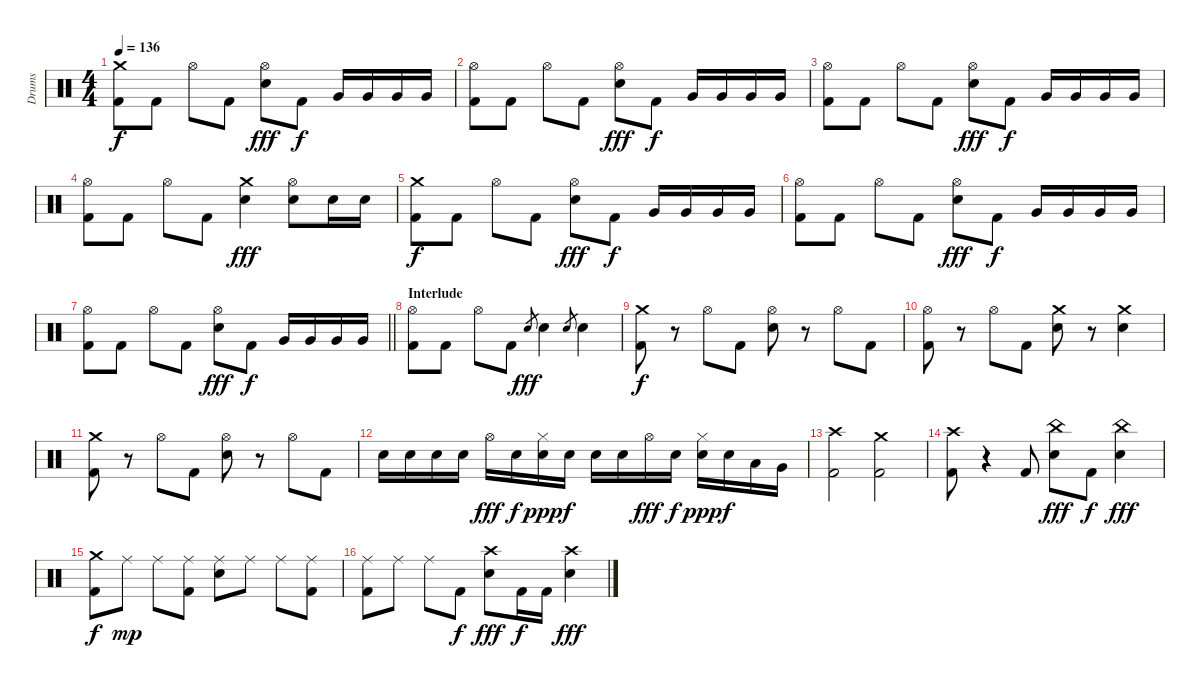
\track ("Drums" "Drums") {instrument percussion}
\staff {score}
\articulation defaults
\ts (4 4)
\tempo 136
\clef neutral
\ks c
("Crash medium (hit)" "Kick (hit) 2").8{dy f} "Kick (hit) 2".8 "Hi-Hat (open)".8 "Kick (hit) 2".8 ("Hi-Hat (open)" "Electric Snare (hit)").8{dy fff} "Kick (hit) 2".8{dy f} "Very Low Tom (hit)".16 "Very Low Tom (hit)".16 "Very Low Tom (hit)".16 "Very Low Tom (hit)".16 |
("Hi-Hat (open)" "Kick (hit) 2").8 "Kick (hit) 2".8 "Hi-Hat (open)".8 "Kick (hit) 2".8 ("Hi-Hat (open)" "Electric Snare (hit)").8{dy fff} "Kick (hit) 2".8{dy f} "Very Low Tom (hit)".16 "Very Low Tom (hit)".16 "Very Low Tom (hit)".16 "Very Low Tom (hit)".16 |
("Hi-Hat (open)" "Kick (hit) 2").8 "Kick (hit) 2".8 "Hi-Hat (open)".8 "Kick (hit) 2".8 ("Hi-Hat (open)" "Electric Snare (hit)").8{dy fff} "Kick (hit) 2".8{dy f} "Very Low Tom (hit)".16 "Very Low Tom (hit)".16 "Very Low Tom (hit)".16 "Very Low Tom (hit)".16 |
("Hi-Hat (open)" "Kick (hit) 2").8 "Kick (hit) 2".8 "Hi-Hat (open)".8 "Kick (hit) 2".8 ("Crash medium (hit)" "Electric Snare (hit)").4{dy fff} ("Hi-Hat (open)" "Electric Snare (hit)").8 "Electric Snare (hit)".16 "Electric Snare (hit)".16 |
("Crash medium (hit)" "Kick (hit) 2").8{dy f} "Kick (hit) 2".8 "Hi-Hat (open)".8 "Kick (hit) 2".8 ("Hi-Hat (open)" "Electric Snare (hit)").8{dy fff} "Kick (hit) 2".8{dy f} "Very Low Tom (hit)".16 "Very Low Tom (hit)".16 "Very Low Tom (hit)".16 "Very Low Tom (hit)".16 |
("Hi-Hat (open)" "Kick (hit) 2").8 "Kick (hit) 2".8 "Hi-Hat (open)".8 "Kick (hit) 2".8 ("Hi-Hat (open)" "Electric Snare (hit)").8{dy fff} "Kick (hit) 2".8{dy f} "Very Low Tom (hit)".16 "Very Low Tom (hit)".16 "Very Low Tom (hit)".16 "Very Low Tom (hit)".16 |
\barLineRight lightlight
("Hi-Hat (open)" "Kick (hit) 2").8 "Kick (hit) 2".8 "Hi-Hat (open)".8 "Kick (hit) 2".8 ("Hi-Hat (open)" "Electric Snare (hit)").8{dy fff} "Kick (hit) 2".8{dy f} "Very Low Tom (hit)".16 "Very Low Tom (hit)".16 "Very Low Tom (hit)".16 "Very Low Tom (hit)".16 |
\section ("" "Interlude")
("Hi-Hat (open)" "Kick (hit) 2").8 "Kick (hit) 2".8 "Hi-Hat (open)".8 "Kick (hit) 2".8 "Electric Snare (hit)".8{gr dy fff} "Electric Snare (hit)".4 "Electric Snare (hit)".8{gr} "Electric Snare (hit)".4 |
("Crash medium (hit)" "Kick (hit) 2").8{dy f} r.8 "Hi-Hat (open)".8 "Kick (hit) 2".8 ("Hi-Hat (open)" "Electric Snare (hit)").8 r.8 "Hi-Hat (open)".8 "Kick (hit) 2".8 |
("Hi-Hat (open)" "Kick (hit) 2").8 r.8 "Hi-Hat (open)".8 "Kick (hit) 2".8 ("Crash medium (hit)" "Electric Snare (hit)").8 r.8 ("Crash medium (hit)" "Electric Snare (hit)").4 |
("Crash medium (hit)" "Kick (hit) 2").8 r.8 "Hi-Hat (open)".8 "Kick (hit) 2".8 ("Hi-Hat (open)" "Electric Snare (hit)").8 r.8 "Hi-Hat (open)".8 "Kick (hit) 2".8 |
"Electric Snare (hit)".16 "Electric Snare (hit)".16 "Electric Snare (hit)".16 "Electric Snare (hit)".16 "Hi-Hat (open)".16{dy fff} "Electric Snare (hit)".16{dy f} ("Hi-Hat (closed)" "Electric Snare (hit)").16{dy ppp} "Electric Snare (hit)".16{dy f} "Electric Snare (hit)".16 "Electric Snare (hit)".16 "Hi-Hat (open)".16{dy fff} "Electric Snare (hit)".16{dy f} ("Hi-Hat (closed)" "Electric Snare (hit)").16{dy ppp} "Electric Snare (hit)".16{dy f} "Low Tom (hit)".16 "Very Low Tom (hit)".16 |
("Crash high (hit)" "Kick (hit) 2").2 ("Crash medium (hit)" "Kick (hit) 2").2 |
("Crash high (hit)" "Kick (hit) 2").8 r.4 "Kick (hit) 2".8 ("China (hit)" "Electric Snare (hit)").8{dy fff} "Kick (hit) 2".8{dy f} ("China (hit)" "Electric Snare (hit)").4{dy fff} |
("Crash medium (hit)" "Kick (hit) 2").8{dy f} "Ride (middle)".8{dy mp} "Ride (middle)".8 ("Ride (middle)" "Kick (hit) 2").8 ("Ride (middle)" "Electric Snare (hit)").8 "Ride (middle)".8 "Ride (middle)".8 ("Ride (middle)" "Kick (hit) 2").8 |
("Ride (middle)" "Kick (hit) 2").8 "Ride (middle)".8 "Ride (middle)".8 "Kick (hit) 2".8{dy f} ("Crash high (hit)" "Electric Snare (hit)").8{dy fff} "Kick (hit) 2".16{dy f} "Kick (hit) 2".16 ("Crash high (hit)" "Electric Snare (hit)").4{dy fff}
